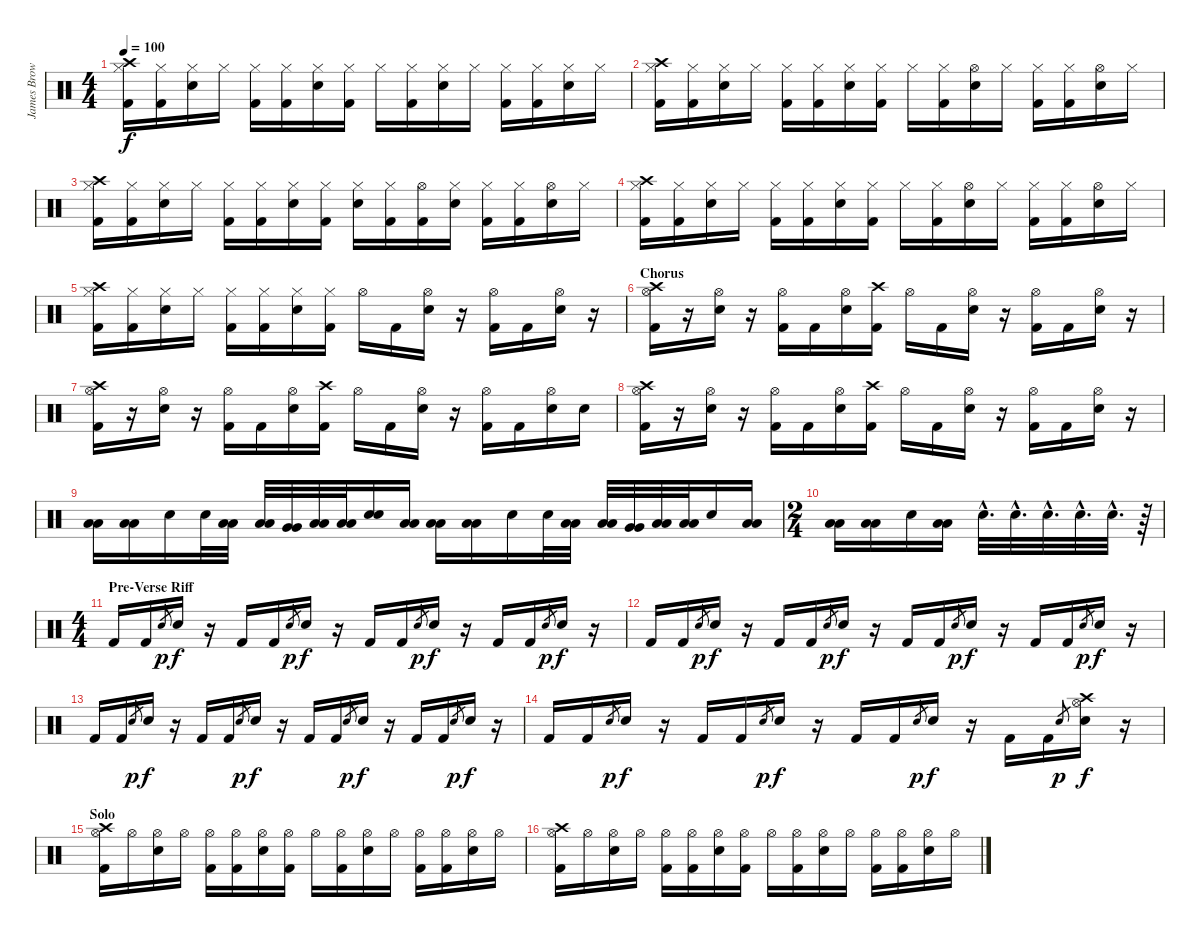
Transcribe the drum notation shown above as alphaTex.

\track ("James Brown" "James Brow") {instrument percussion}
\staff {score}
\articulation defaults
\ts (4 4)
\tempo 100
\clef neutral
\ks c
("Crash high (hit)" "Hi-Hat (closed)" "Kick (hit) 2").16{dy f} ("Hi-Hat (closed)" "Kick (hit) 2").16 ("Hi-Hat (closed)" "Snare (hit) 2").16 "Hi-Hat (closed)".16 ("Hi-Hat (closed)" "Kick (hit) 2").16 ("Hi-Hat (closed)" "Kick (hit) 2").16 ("Hi-Hat (closed)" "Snare (hit) 2").16 ("Hi-Hat (closed)" "Kick (hit) 2").16 "Hi-Hat (closed)".16 ("Hi-Hat (closed)" "Kick (hit) 2").16 ("Hi-Hat (closed)" "Snare (hit) 2").16 "Hi-Hat (closed)".16 ("Hi-Hat (closed)" "Kick (hit) 2").16 ("Hi-Hat (closed)" "Kick (hit) 2").16 ("Hi-Hat (closed)" "Snare (hit) 2").16 "Hi-Hat (closed)".16 |
("Crash high (hit)" "Hi-Hat (closed)" "Kick (hit) 2").16 ("Hi-Hat (closed)" "Kick (hit) 2").16 ("Hi-Hat (closed)" "Snare (hit) 2").16 "Hi-Hat (closed)".16 ("Hi-Hat (closed)" "Kick (hit) 2").16 ("Hi-Hat (closed)" "Kick (hit) 2").16 ("Hi-Hat (closed)" "Snare (hit) 2").16 ("Hi-Hat (closed)" "Kick (hit) 2").16 "Hi-Hat (closed)".16 ("Hi-Hat (closed)" "Kick (hit) 2").16 ("Hi-Hat (open)" "Snare (hit) 2").16 "Hi-Hat (closed)".16 ("Hi-Hat (closed)" "Kick (hit) 2").16 ("Hi-Hat (closed)" "Kick (hit) 2").16 ("Hi-Hat (open)" "Snare (hit) 2").16 "Hi-Hat (closed)".16 |
("Crash high (hit)" "Hi-Hat (closed)" "Kick (hit) 2").16 ("Hi-Hat (closed)" "Kick (hit) 2").16 ("Hi-Hat (closed)" "Snare (hit) 2").16 "Hi-Hat (closed)".16 ("Hi-Hat (closed)" "Kick (hit) 2").16 ("Hi-Hat (closed)" "Kick (hit) 2").16 ("Hi-Hat (closed)" "Snare (hit) 2").16 ("Hi-Hat (closed)" "Kick (hit) 2").16 ("Hi-Hat (closed)" "Snare (hit) 2").16 ("Hi-Hat (closed)" "Kick (hit) 2").16 ("Hi-Hat (open)" "Kick (hit) 2").16 ("Hi-Hat (closed)" "Snare (hit) 2").16 ("Hi-Hat (closed)" "Kick (hit) 2").16 ("Hi-Hat (closed)" "Kick (hit) 2").16 ("Hi-Hat (open)" "Snare (hit) 2").16 "Hi-Hat (closed)".16 |
("Crash high (hit)" "Hi-Hat (closed)" "Kick (hit) 2").16 ("Hi-Hat (closed)" "Kick (hit) 2").16 ("Hi-Hat (closed)" "Snare (hit) 2").16 "Hi-Hat (closed)".16 ("Hi-Hat (closed)" "Kick (hit) 2").16 ("Hi-Hat (closed)" "Kick (hit) 2").16 ("Hi-Hat (closed)" "Snare (hit) 2").16 ("Hi-Hat (closed)" "Kick (hit) 2").16 "Hi-Hat (closed)".16 ("Hi-Hat (closed)" "Kick (hit) 2").16 ("Hi-Hat (open)" "Snare (hit) 2").16 "Hi-Hat (closed)".16 ("Hi-Hat (closed)" "Kick (hit) 2").16 ("Hi-Hat (closed)" "Kick (hit) 2").16 ("Hi-Hat (open)" "Snare (hit) 2").16 "Hi-Hat (closed)".16 |
("Crash high (hit)" "Hi-Hat (closed)" "Kick (hit) 2").16 ("Hi-Hat (closed)" "Kick (hit) 2").16 ("Hi-Hat (closed)" "Snare (hit) 2").16 "Hi-Hat (closed)".16 ("Hi-Hat (closed)" "Kick (hit) 2").16 ("Hi-Hat (closed)" "Kick (hit) 2").16 ("Hi-Hat (closed)" "Snare (hit) 2").16 ("Hi-Hat (closed)" "Kick (hit) 2").16 "Hi-Hat (open)".16 "Kick (hit) 2".16 ("Hi-Hat (open)" "Snare (hit) 2").16 r.16 ("Hi-Hat (open)" "Kick (hit) 2").16 "Kick (hit) 2".16 ("Hi-Hat (open)" "Snare (hit) 2").16 r.16 |
\section ("" "Chorus")
("Crash high (hit)" "Hi-Hat (open)" "Kick (hit) 2").16 r.16 ("Hi-Hat (open)" "Snare (hit) 2").16 r.16 ("Hi-Hat (open)" "Kick (hit) 2").16 "Kick (hit) 2".16 ("Hi-Hat (open)" "Snare (hit) 2").16 ("Crash high (hit)" "Kick (hit) 2").16 "Hi-Hat (open)".16 "Kick (hit) 2".16 ("Hi-Hat (open)" "Snare (hit) 2").16 r.16 ("Hi-Hat (open)" "Kick (hit) 2").16 "Kick (hit) 2".16 ("Hi-Hat (open)" "Snare (hit) 2").16 r.16 |
("Crash high (hit)" "Hi-Hat (open)" "Kick (hit) 2").16 r.16 ("Hi-Hat (open)" "Snare (hit) 2").16 r.16 ("Hi-Hat (open)" "Kick (hit) 2").16 "Kick (hit) 2".16 ("Hi-Hat (open)" "Snare (hit) 2").16 ("Crash high (hit)" "Kick (hit) 2").16 "Hi-Hat (open)".16 "Kick (hit) 2".16 ("Hi-Hat (open)" "Snare (hit) 2").16 r.16 ("Hi-Hat (open)" "Kick (hit) 2").16 "Kick (hit) 2".16 ("Hi-Hat (open)" "Snare (hit) 2").16 "Snare (hit) 2".16 |
("Crash high (hit)" "Hi-Hat (open)" "Kick (hit) 2").16 r.16 ("Hi-Hat (open)" "Snare (hit) 2").16 r.16 ("Hi-Hat (open)" "Kick (hit) 2").16 "Kick (hit) 2".16 ("Hi-Hat (open)" "Snare (hit) 2").16 ("Crash high (hit)" "Kick (hit) 2").16 "Hi-Hat (open)".16 "Kick (hit) 2".16 ("Hi-Hat (open)" "Snare (hit) 2").16 r.16 ("Hi-Hat (open)" "Kick (hit) 2").16 "Kick (hit) 2".16 ("Hi-Hat (open)" "Snare (hit) 2").16 r.16 |
("Low Floor Tom (hit)" "Low Floor Tom (hit)").16 ("Low Floor Tom (hit)" "Low Floor Tom (hit)").16 "Snare (hit) 2".16 "Snare (hit) 2".32 ("Low Tom (hit)" "Low Tom (hit)").32 ("Low Tom (hit)" "Low Tom (hit)").32 ("Very Low Tom (hit)" "Very Low Tom (hit)").32 ("Low Floor Tom (hit)" "Low Floor Tom (hit)").32 ("Low Floor Tom (hit)" "Low Floor Tom (hit)").32 ("Snare (hit) 2" "Snare (hit) 2").16 ("Low Floor Tom (hit)" "Low Floor Tom (hit)").16 ("Low Floor Tom (hit)" "Low Floor Tom (hit)").16 ("Low Floor Tom (hit)" "Low Floor Tom (hit)").16 "Snare (hit) 2".16 "Snare (hit) 2".32 ("Low Tom (hit)" "Low Tom (hit)").32 ("Low Tom (hit)" "Low Tom (hit)").32 ("Very Low Tom (hit)" "Very Low Tom (hit)").32 ("Low Floor Tom (hit)" "Low Floor Tom (hit)").32 ("Low Floor Tom (hit)" "Low Floor Tom (hit)").32 "Snare (hit) 2".16 ("Low Floor Tom (hit)" "Low Floor Tom (hit)").16 |
\ts (2 4)
("Low Floor Tom (hit)" "Low Floor Tom (hit)").16 ("Low Floor Tom (hit)" "Low Floor Tom (hit)").16 "Snare (hit) 2".16 ("Low Floor Tom (hit)" "Low Floor Tom (hit)").16 "Snare (hit) 2"{hac}.32{d} "Snare (hit) 2"{hac}.32{d} "Snare (hit) 2"{hac}.32{d} "Snare (hit) 2"{hac}.32{d} "Snare (hit) 2"{hac}.32{d} r.64 |
\ts (4 4)
\section ("" "Pre-Verse Riff")
"Kick (hit) 2".16 "Kick (hit) 2".16 "Snare (hit) 2".8{gr dy p} "Snare (hit) 2".16{dy f} r.16 "Kick (hit) 2".16 "Kick (hit) 2".16 "Snare (hit) 2".8{gr dy p} "Snare (hit) 2".16{dy f} r.16 "Kick (hit) 2".16 "Kick (hit) 2".16 "Snare (hit) 2".8{gr dy p} "Snare (hit) 2".16{dy f} r.16 "Kick (hit) 2".16 "Kick (hit) 2".16 "Snare (hit) 2".8{gr dy p} "Snare (hit) 2".16{dy f} r.16 |
"Kick (hit) 2".16 "Kick (hit) 2".16 "Snare (hit) 2".8{gr dy p} "Snare (hit) 2".16{dy f} r.16 "Kick (hit) 2".16 "Kick (hit) 2".16 "Snare (hit) 2".8{gr dy p} "Snare (hit) 2".16{dy f} r.16 "Kick (hit) 2".16 "Kick (hit) 2".16 "Snare (hit) 2".8{gr dy p} "Snare (hit) 2".16{dy f} r.16 "Kick (hit) 2".16 "Kick (hit) 2".16 "Snare (hit) 2".8{gr dy p} "Snare (hit) 2".16{dy f} r.16 |
"Kick (hit) 2".16 "Kick (hit) 2".16 "Snare (hit) 2".8{gr dy p} "Snare (hit) 2".16{dy f} r.16 "Kick (hit) 2".16 "Kick (hit) 2".16 "Snare (hit) 2".8{gr dy p} "Snare (hit) 2".16{dy f} r.16 "Kick (hit) 2".16 "Kick (hit) 2".16 "Snare (hit) 2".8{gr dy p} "Snare (hit) 2".16{dy f} r.16 "Kick (hit) 2".16 "Kick (hit) 2".16 "Snare (hit) 2".8{gr dy p} "Snare (hit) 2".16{dy f} r.16 |
"Kick (hit) 2".16 "Kick (hit) 2".16 "Snare (hit) 2".8{gr dy p} "Snare (hit) 2".16{dy f} r.16 "Kick (hit) 2".16 "Kick (hit) 2".16 "Snare (hit) 2".8{gr dy p} "Snare (hit) 2".16{dy f} r.16 "Kick (hit) 2".16 "Kick (hit) 2".16 "Snare (hit) 2".8{gr dy p} "Snare (hit) 2".16{dy f} r.16 "Kick (hit) 2".16 "Kick (hit) 2".16 "Snare (hit) 2".8{gr dy p} ("Snare (hit) 2" "Hi-Hat (open)" "Crash high (hit)").16{dy f} r.16 |
\section ("" "Solo")
("Crash high (hit)" "Hi-Hat (open)" "Kick (hit) 2").16 "Hi-Hat (open)".16 ("Hi-Hat (open)" "Snare (hit) 2").16 "Hi-Hat (open)".16 ("Hi-Hat (open)" "Kick (hit) 2").16 ("Hi-Hat (open)" "Kick (hit) 2").16 ("Hi-Hat (open)" "Snare (hit) 2").16 ("Hi-Hat (open)" "Kick (hit) 2").16 "Hi-Hat (open)".16 ("Hi-Hat (open)" "Kick (hit) 2").16 ("Hi-Hat (open)" "Snare (hit) 2").16 "Hi-Hat (open)".16 ("Hi-Hat (open)" "Kick (hit) 2").16 ("Hi-Hat (open)" "Kick (hit) 2").16 ("Hi-Hat (open)" "Snare (hit) 2").16 "Hi-Hat (open)".16 |
("Crash high (hit)" "Hi-Hat (open)" "Kick (hit) 2").16 "Hi-Hat (open)".16 ("Hi-Hat (open)" "Snare (hit) 2").16 "Hi-Hat (open)".16 ("Hi-Hat (open)" "Kick (hit) 2").16 ("Hi-Hat (open)" "Kick (hit) 2").16 ("Hi-Hat (open)" "Snare (hit) 2").16 ("Hi-Hat (open)" "Kick (hit) 2").16 "Hi-Hat (open)".16 ("Hi-Hat (open)" "Kick (hit) 2").16 ("Hi-Hat (open)" "Snare (hit) 2").16 "Hi-Hat (open)".16 ("Hi-Hat (open)" "Kick (hit) 2").16 ("Hi-Hat (open)" "Kick (hit) 2").16 ("Hi-Hat (open)" "Snare (hit) 2").16 "Hi-Hat (open)".16
